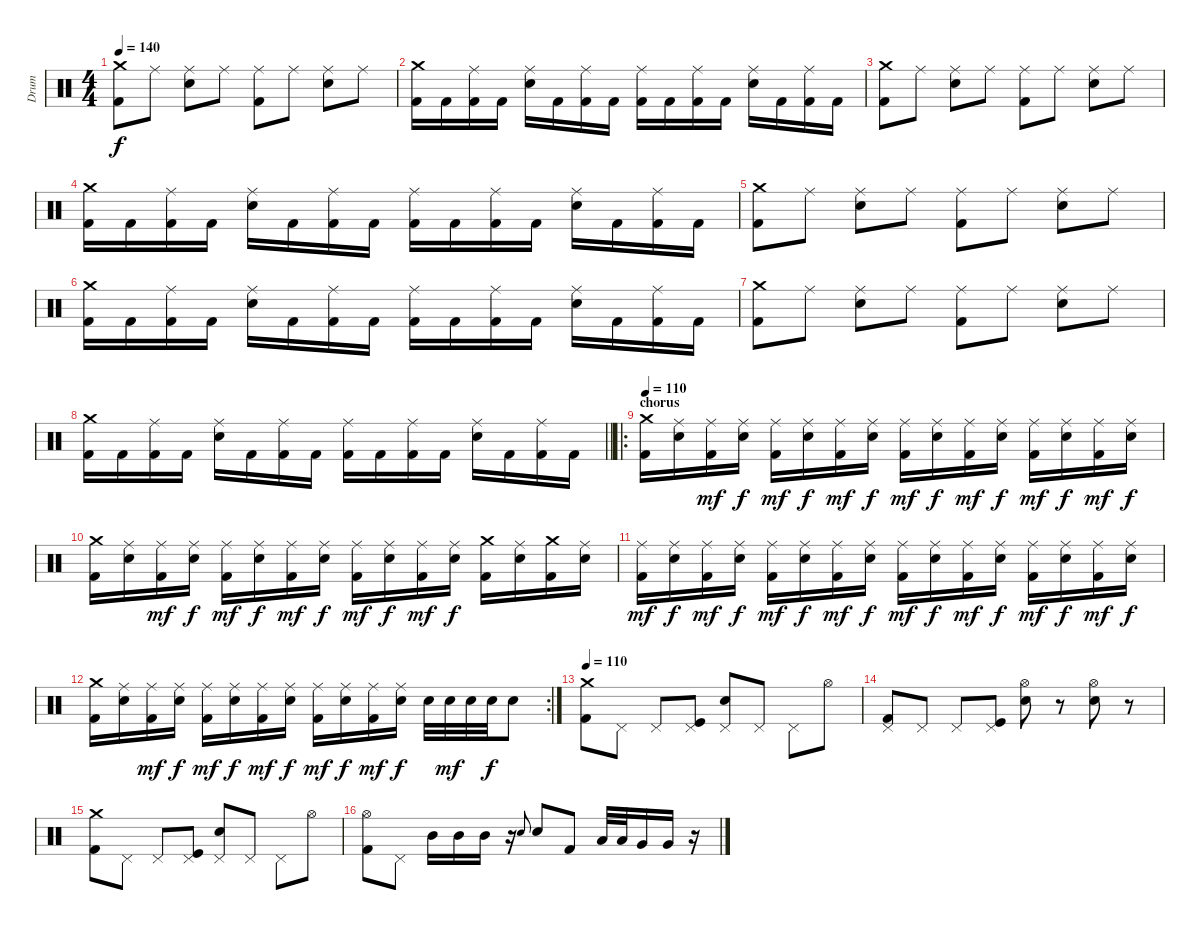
\track ("Drum" "Drum") {instrument percussion}
\staff {score}
\articulation defaults
\ts (4 4)
\tempo 140
\clef neutral
\ks c
("Crash medium (hit)" "Kick (hit) 2").8{dy f} "Ride (middle)".8 ("Ride (middle)" "Snare (hit) 2").8 "Ride (middle)".8 ("Ride (middle)" "Kick (hit) 2").8 "Ride (middle)".8 ("Ride (middle)" "Snare (hit) 2").8 "Ride (middle)".8 |
("Crash medium (hit)" "Kick (hit) 2").16 "Kick (hit) 2".16 ("Ride (middle)" "Kick (hit) 2").16 "Kick (hit) 2".16 ("Ride (middle)" "Snare (hit) 2").16 "Kick (hit) 2".16 ("Ride (middle)" "Kick (hit) 2").16 "Kick (hit) 2".16 ("Ride (middle)" "Kick (hit) 2").16 "Kick (hit) 2".16 ("Ride (middle)" "Kick (hit) 2").16 "Kick (hit) 2".16 ("Ride (middle)" "Snare (hit) 2").16 "Kick (hit) 2".16 ("Ride (middle)" "Kick (hit) 2").16 "Kick (hit) 2".16 |
("Crash medium (hit)" "Kick (hit) 2").8 "Ride (middle)".8 ("Ride (middle)" "Snare (hit) 2").8 "Ride (middle)".8 ("Ride (middle)" "Kick (hit) 2").8 "Ride (middle)".8 ("Ride (middle)" "Snare (hit) 2").8 "Ride (middle)".8 |
("Crash medium (hit)" "Kick (hit) 2").16 "Kick (hit) 2".16 ("Ride (middle)" "Kick (hit) 2").16 "Kick (hit) 2".16 ("Ride (middle)" "Snare (hit) 2").16 "Kick (hit) 2".16 ("Ride (middle)" "Kick (hit) 2").16 "Kick (hit) 2".16 ("Ride (middle)" "Kick (hit) 2").16 "Kick (hit) 2".16 ("Ride (middle)" "Kick (hit) 2").16 "Kick (hit) 2".16 ("Ride (middle)" "Snare (hit) 2").16 "Kick (hit) 2".16 ("Ride (middle)" "Kick (hit) 2").16 "Kick (hit) 2".16 |
("Crash medium (hit)" "Kick (hit) 2").8 "Ride (middle)".8 ("Ride (middle)" "Snare (hit) 2").8 "Ride (middle)".8 ("Ride (middle)" "Kick (hit) 2").8 "Ride (middle)".8 ("Ride (middle)" "Snare (hit) 2").8 "Ride (middle)".8 |
("Crash medium (hit)" "Kick (hit) 2").16 "Kick (hit) 2".16 ("Ride (middle)" "Kick (hit) 2").16 "Kick (hit) 2".16 ("Ride (middle)" "Snare (hit) 2").16 "Kick (hit) 2".16 ("Ride (middle)" "Kick (hit) 2").16 "Kick (hit) 2".16 ("Ride (middle)" "Kick (hit) 2").16 "Kick (hit) 2".16 ("Ride (middle)" "Kick (hit) 2").16 "Kick (hit) 2".16 ("Ride (middle)" "Snare (hit) 2").16 "Kick (hit) 2".16 ("Ride (middle)" "Kick (hit) 2").16 "Kick (hit) 2".16 |
("Crash medium (hit)" "Kick (hit) 2").8 "Ride (middle)".8 ("Ride (middle)" "Snare (hit) 2").8 "Ride (middle)".8 ("Ride (middle)" "Kick (hit) 2").8 "Ride (middle)".8 ("Ride (middle)" "Snare (hit) 2").8 "Ride (middle)".8 |
\barLineRight lightlight
("Crash medium (hit)" "Kick (hit) 2").16 "Kick (hit) 2".16 ("Ride (middle)" "Kick (hit) 2").16 "Kick (hit) 2".16 ("Ride (middle)" "Snare (hit) 2").16 "Kick (hit) 2".16 ("Ride (middle)" "Kick (hit) 2").16 "Kick (hit) 2".16 ("Ride (middle)" "Kick (hit) 2").16 "Kick (hit) 2".16 ("Ride (middle)" "Kick (hit) 2").16 "Kick (hit) 2".16 ("Ride (middle)" "Snare (hit) 2").16 "Kick (hit) 2".16 ("Ride (middle)" "Kick (hit) 2").16 "Kick (hit) 2".16 |
\ro
\section ("" "chorus")
\tempo 110
("Crash medium (hit)" "Kick (hit) 2").16 ("Ride (middle)" "Snare (hit) 2").16 ("Ride (middle)" "Kick (hit) 2").16{dy mf} ("Ride (middle)" "Snare (hit) 2").16{dy f} ("Ride (middle)" "Kick (hit) 2").16{dy mf} ("Ride (middle)" "Snare (hit) 2").16{dy f} ("Ride (middle)" "Kick (hit) 2").16{dy mf} ("Ride (middle)" "Snare (hit) 2").16{dy f} ("Ride (middle)" "Kick (hit) 2").16{dy mf} ("Ride (middle)" "Snare (hit) 2").16{dy f} ("Ride (middle)" "Kick (hit) 2").16{dy mf} ("Ride (middle)" "Snare (hit) 2").16{dy f} ("Ride (middle)" "Kick (hit) 2").16{dy mf} ("Ride (middle)" "Snare (hit) 2").16{dy f} ("Ride (middle)" "Kick (hit) 2").16{dy mf} ("Ride (middle)" "Snare (hit) 2").16{dy f} |
("Crash medium (hit)" "Kick (hit) 2").16 ("Ride (middle)" "Snare (hit) 2").16 ("Ride (middle)" "Kick (hit) 2").16{dy mf} ("Ride (middle)" "Snare (hit) 2").16{dy f} ("Ride (middle)" "Kick (hit) 2").16{dy mf} ("Ride (middle)" "Snare (hit) 2").16{dy f} ("Ride (middle)" "Kick (hit) 2").16{dy mf} ("Ride (middle)" "Snare (hit) 2").16{dy f} ("Ride (middle)" "Kick (hit) 2").16{dy mf} ("Ride (middle)" "Snare (hit) 2").16{dy f} ("Ride (middle)" "Kick (hit) 2").16{dy mf} ("Ride (middle)" "Snare (hit) 2").16{dy f} ("Crash medium (hit)" "Kick (hit) 2").16 ("Ride (middle)" "Snare (hit) 2").16 ("Crash medium (hit)" "Kick (hit) 2").16 ("Ride (middle)" "Snare (hit) 2").16 |
("Ride (middle)" "Kick (hit) 2").16{dy mf} ("Ride (middle)" "Snare (hit) 2").16{dy f} ("Ride (middle)" "Kick (hit) 2").16{dy mf} ("Ride (middle)" "Snare (hit) 2").16{dy f} ("Ride (middle)" "Kick (hit) 2").16{dy mf} ("Ride (middle)" "Snare (hit) 2").16{dy f} ("Ride (middle)" "Kick (hit) 2").16{dy mf} ("Ride (middle)" "Snare (hit) 2").16{dy f} ("Ride (middle)" "Kick (hit) 2").16{dy mf} ("Ride (middle)" "Snare (hit) 2").16{dy f} ("Ride (middle)" "Kick (hit) 2").16{dy mf} ("Ride (middle)" "Snare (hit) 2").16{dy f} ("Ride (middle)" "Kick (hit) 2").16{dy mf} ("Ride (middle)" "Snare (hit) 2").16{dy f} ("Ride (middle)" "Kick (hit) 2").16{dy mf} ("Ride (middle)" "Snare (hit) 2").16{dy f} |
\rc 2
("Crash medium (hit)" "Kick (hit) 2").16 ("Ride (middle)" "Snare (hit) 2").16 ("Ride (middle)" "Kick (hit) 2").16{dy mf} ("Ride (middle)" "Snare (hit) 2").16{dy f} ("Ride (middle)" "Kick (hit) 2").16{dy mf} ("Ride (middle)" "Snare (hit) 2").16{dy f} ("Ride (middle)" "Kick (hit) 2").16{dy mf} ("Ride (middle)" "Snare (hit) 2").16{dy f} ("Ride (middle)" "Kick (hit) 2").16{dy mf} ("Ride (middle)" "Snare (hit) 2").16{dy f} ("Ride (middle)" "Kick (hit) 2").16{dy mf} ("Ride (middle)" "Snare (hit) 2").16{dy f} "Snare (hit) 2".32 "Snare (hit) 2".32{dy mf} "Snare (hit) 2".32 "Snare (hit) 2".32{dy f} "Snare (hit) 2".8 |
\tempo 110
("Crash medium (hit)" "Kick (hit) 2").8 "Pedal Hi-Hat (hit)".8 "Pedal Hi-Hat (hit)".8 ("Pedal Hi-Hat (hit)" "Kick (hit)").8 ("Pedal Hi-Hat (hit)" "Snare (hit) 2").8 "Pedal Hi-Hat (hit)".8 "Pedal Hi-Hat (hit)".8 "Hi-Hat (open)".8 |
("Pedal Hi-Hat (hit)" "Kick (hit) 2").8 "Pedal Hi-Hat (hit)".8 "Pedal Hi-Hat (hit)".8 ("Pedal Hi-Hat (hit)" "Kick (hit)").8 ("Hi-Hat (open)" "Snare (hit) 2").8 r.8 ("Hi-Hat (open)" "Snare (hit) 2").8 r.8 |
("Crash medium (hit)" "Kick (hit) 2").8 "Pedal Hi-Hat (hit)".8 "Pedal Hi-Hat (hit)".8 ("Pedal Hi-Hat (hit)" "Kick (hit)").8 ("Pedal Hi-Hat (hit)" "Snare (hit) 2").8 "Pedal Hi-Hat (hit)".8 "Pedal Hi-Hat (hit)".8 "Hi-Hat (open)".8 |
("Hi-Hat (open)" "Kick (hit) 2").8 "Pedal Hi-Hat (hit)".8 "Mid Tom (hit)".16 "Mid Tom (hit)".16 "Mid Tom (hit)".16 r.16 "Snare (hit) 2".8{gr onbeat} "Snare (hit) 2".8 "Kick (hit) 2".8 "Low Tom (hit)".32 "Low Tom (hit)".32 "Very Low Tom (hit)".16 "Very Low Tom (hit)".16 r.16
